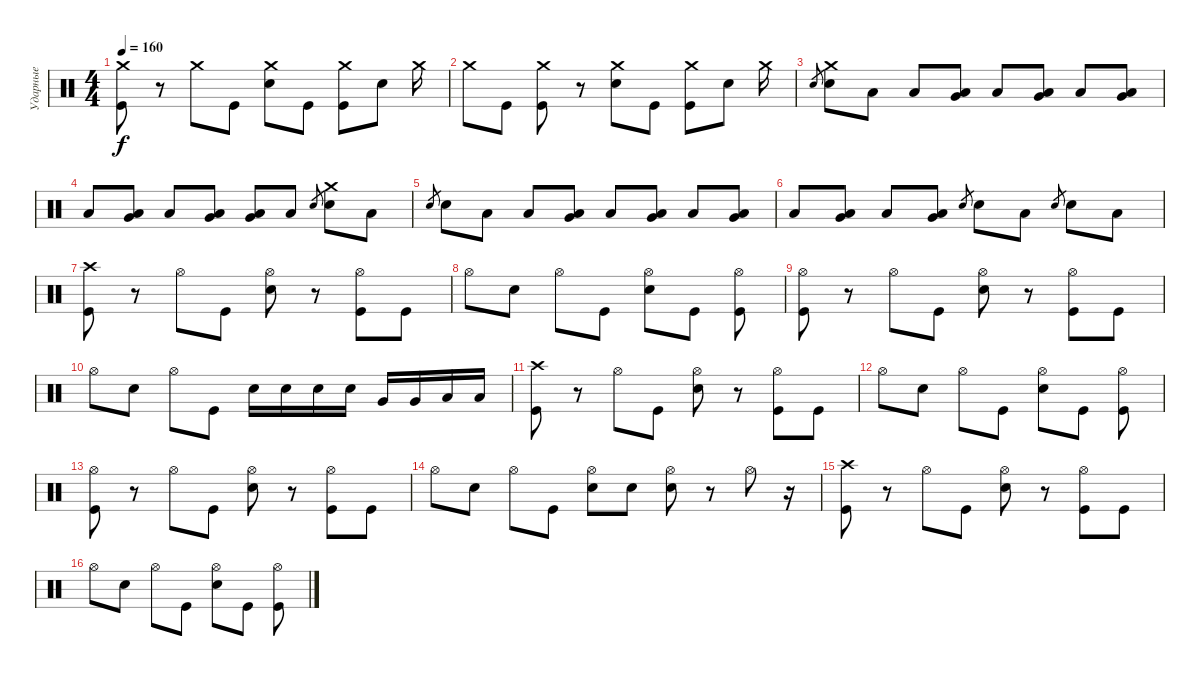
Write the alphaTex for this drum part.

\track ("Ударные" "Ударные") {instrument percussion}
\staff {score}
\articulation defaults
\ts (4 4)
\tempo 160
\clef neutral
\ks c
("Crash medium (hit)" "Kick (hit)").8{dy f} r.8 "Crash medium (hit)".8 "Kick (hit)".8 ("Crash medium (hit)" "Electric Snare (hit)").8 "Kick (hit)".8 ("Crash medium (hit)" "Kick (hit)").8 "Electric Snare (hit)".8 "Crash medium (hit)".16 |
"Crash medium (hit)".8 "Kick (hit)".8 ("Crash medium (hit)" "Kick (hit)").8 r.8 ("Crash medium (hit)" "Electric Snare (hit)").8 "Kick (hit)".8 ("Crash medium (hit)" "Kick (hit)").8 "Electric Snare (hit)".8 "Crash medium (hit)".16 |
"Electric Snare (hit)".8{gr} ("Crash medium (hit)" "Electric Snare (hit)").8 "Low Floor Tom (hit)".8 "Low Floor Tom (hit)".8 ("Very Low Tom (hit)" "Low Floor Tom (hit)").8 "Low Floor Tom (hit)".8 ("Very Low Tom (hit)" "Low Floor Tom (hit)").8 "Low Floor Tom (hit)".8 ("Very Low Tom (hit)" "Low Floor Tom (hit)").8 |
"Low Floor Tom (hit)".8 ("Very Low Tom (hit)" "Low Floor Tom (hit)").8 "Low Floor Tom (hit)".8 ("Very Low Tom (hit)" "Low Floor Tom (hit)").8 ("Very Low Tom (hit)" "Low Floor Tom (hit)").8 "Low Floor Tom (hit)".8 "Electric Snare (hit)".8{gr} ("Crash medium (hit)" "Electric Snare (hit)").8 "Low Floor Tom (hit)".8 |
"Electric Snare (hit)".8{gr} "Electric Snare (hit)".8 "Low Floor Tom (hit)".8 "Low Floor Tom (hit)".8 ("Very Low Tom (hit)" "Low Floor Tom (hit)").8 "Low Floor Tom (hit)".8 ("Very Low Tom (hit)" "Low Floor Tom (hit)").8 "Low Floor Tom (hit)".8 ("Very Low Tom (hit)" "Low Floor Tom (hit)").8 |
"Low Floor Tom (hit)".8 ("Very Low Tom (hit)" "Low Floor Tom (hit)").8 "Low Floor Tom (hit)".8 ("Very Low Tom (hit)" "Low Floor Tom (hit)").8 "Electric Snare (hit)".8{gr} "Electric Snare (hit)".8 "Low Floor Tom (hit)".8 "Electric Snare (hit)".8{gr} "Electric Snare (hit)".8 "Low Floor Tom (hit)".8 |
("Crash high (hit)" "Kick (hit)").8 r.8 "Hi-Hat (open)".8 "Kick (hit)".8 ("Hi-Hat (open)" "Electric Snare (hit)").8 r.8 ("Hi-Hat (open)" "Kick (hit)").8 "Kick (hit)".8 |
"Hi-Hat (open)".8 "Electric Snare (hit)".8 "Hi-Hat (open)".8 "Kick (hit)".8 ("Hi-Hat (open)" "Electric Snare (hit)").8 "Kick (hit)".8 ("Hi-Hat (open)" "Kick (hit)").8 |
("Hi-Hat (open)" "Kick (hit)").8 r.8 "Hi-Hat (open)".8 "Kick (hit)".8 ("Hi-Hat (open)" "Electric Snare (hit)").8 r.8 ("Hi-Hat (open)" "Kick (hit)").8 "Kick (hit)".8 |
"Hi-Hat (open)".8 "Electric Snare (hit)".8 "Hi-Hat (open)".8 "Kick (hit)".8 "Electric Snare (hit)".16 "Electric Snare (hit)".16 "Electric Snare (hit)".16 "Electric Snare (hit)".16 "Very Low Tom (hit)".16 "Very Low Tom (hit)".16 "Low Floor Tom (hit)".16 "Low Floor Tom (hit)".16 |
("Crash high (hit)" "Kick (hit)").8 r.8 "Hi-Hat (open)".8 "Kick (hit)".8 ("Hi-Hat (open)" "Electric Snare (hit)").8 r.8 ("Hi-Hat (open)" "Kick (hit)").8 "Kick (hit)".8 |
"Hi-Hat (open)".8 "Electric Snare (hit)".8 "Hi-Hat (open)".8 "Kick (hit)".8 ("Hi-Hat (open)" "Electric Snare (hit)").8 "Kick (hit)".8 ("Hi-Hat (open)" "Kick (hit)").8 |
("Hi-Hat (open)" "Kick (hit)").8 r.8 "Hi-Hat (open)".8 "Kick (hit)".8 ("Hi-Hat (open)" "Electric Snare (hit)").8 r.8 ("Hi-Hat (open)" "Kick (hit)").8 "Kick (hit)".8 |
"Hi-Hat (open)".8 "Electric Snare (hit)".8 "Hi-Hat (open)".8 "Kick (hit)".8 ("Hi-Hat (open)" "Electric Snare (hit)").8 "Electric Snare (hit)".8 ("Hi-Hat (open)" "Electric Snare (hit)").8 r.8 "Hi-Hat (open)".8 r.16 |
("Crash high (hit)" "Kick (hit)").8 r.8 "Hi-Hat (open)".8 "Kick (hit)".8 ("Hi-Hat (open)" "Electric Snare (hit)").8 r.8 ("Hi-Hat (open)" "Kick (hit)").8 "Kick (hit)".8 |
"Hi-Hat (open)".8 "Electric Snare (hit)".8 "Hi-Hat (open)".8 "Kick (hit)".8 ("Hi-Hat (open)" "Electric Snare (hit)").8 "Kick (hit)".8 ("Hi-Hat (open)" "Kick (hit)").8
